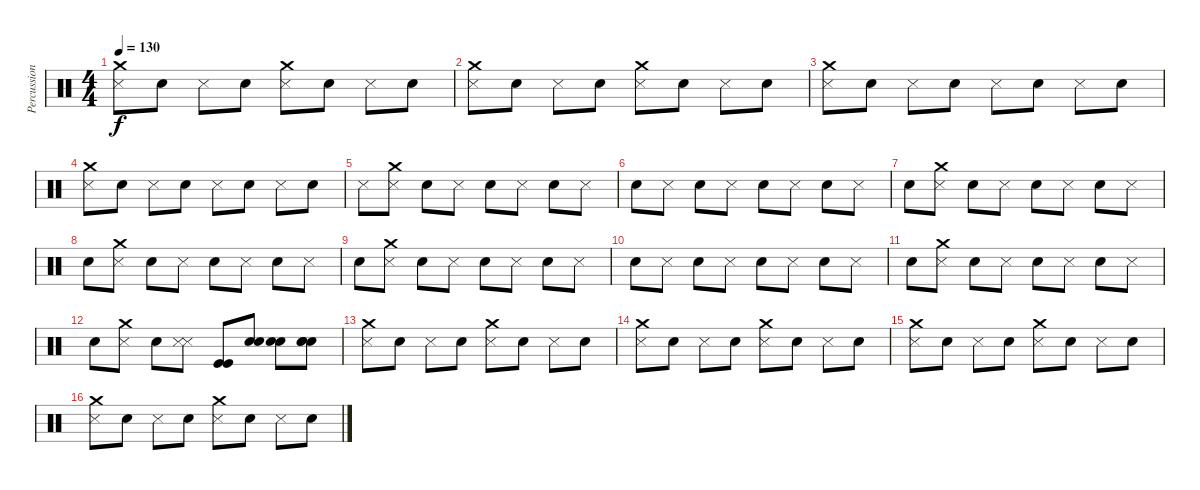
\track ("Percussion" "Percussion") {instrument percussion}
\staff {score}
\articulation defaults
\ts (4 4)
\tempo 130
\clef neutral
\ks c
("Crash medium (hit)" "Metronome (hit)").8{dy f} "Electric Snare (hit)".8 "Metronome (hit)".8 "Electric Snare (hit)".8 ("Crash medium (hit)" "Metronome (hit)").8 "Electric Snare (hit)".8 "Metronome (hit)".8 "Electric Snare (hit)".8 |
("Crash medium (hit)" "Metronome (hit)").8 "Electric Snare (hit)".8 "Metronome (hit)".8 "Electric Snare (hit)".8 ("Crash medium (hit)" "Metronome (hit)").8 "Electric Snare (hit)".8 "Metronome (hit)".8 "Electric Snare (hit)".8 |
("Crash medium (hit)" "Metronome (hit)").8 "Electric Snare (hit)".8 "Metronome (hit)".8 "Electric Snare (hit)".8 "Metronome (hit)".8 "Electric Snare (hit)".8 "Metronome (hit)".8 "Electric Snare (hit)".8 |
("Crash medium (hit)" "Metronome (hit)").8 "Electric Snare (hit)".8 "Metronome (hit)".8 "Electric Snare (hit)".8 "Metronome (hit)".8 "Electric Snare (hit)".8 "Metronome (hit)".8 "Electric Snare (hit)".8 |
"Metronome (hit)".8 ("Crash medium (hit)" "Metronome (hit)").8 "Electric Snare (hit)".8 "Metronome (hit)".8 "Electric Snare (hit)".8 "Metronome (hit)".8 "Electric Snare (hit)".8 "Metronome (hit)".8 |
"Electric Snare (hit)".8 "Metronome (hit)".8 "Electric Snare (hit)".8 "Metronome (hit)".8 "Electric Snare (hit)".8 "Metronome (hit)".8 "Electric Snare (hit)".8 "Metronome (hit)".8 |
"Electric Snare (hit)".8 ("Crash medium (hit)" "Metronome (hit)").8 "Electric Snare (hit)".8 "Metronome (hit)".8 "Electric Snare (hit)".8 "Metronome (hit)".8 "Electric Snare (hit)".8 "Metronome (hit)".8 |
"Electric Snare (hit)".8 ("Crash medium (hit)" "Metronome (hit)").8 "Electric Snare (hit)".8 "Metronome (hit)".8 "Electric Snare (hit)".8 "Metronome (hit)".8 "Electric Snare (hit)".8 "Metronome (hit)".8 |
"Electric Snare (hit)".8 ("Crash medium (hit)" "Metronome (hit)").8 "Electric Snare (hit)".8 "Metronome (hit)".8 "Electric Snare (hit)".8 "Metronome (hit)".8 "Electric Snare (hit)".8 "Metronome (hit)".8 |
"Electric Snare (hit)".8 "Metronome (hit)".8 "Electric Snare (hit)".8 "Metronome (hit)".8 "Electric Snare (hit)".8 "Metronome (hit)".8 "Electric Snare (hit)".8 "Metronome (hit)".8 |
"Electric Snare (hit)".8 ("Crash medium (hit)" "Metronome (hit)").8 "Electric Snare (hit)".8 "Metronome (hit)".8 "Electric Snare (hit)".8 "Metronome (hit)".8 "Electric Snare (hit)".8 "Metronome (hit)".8 |
"Electric Snare (hit)".8 ("Crash medium (hit)" "Metronome (hit)").8 "Electric Snare (hit)".8 ("Metronome (hit)" "Metronome (hit)").8 ("Kick (hit)" "Kick (hit)").8 ("Snare (hit) 2" "Snare (hit) 2").8 ("Electric Snare (hit)" "Electric Snare (hit)").8 ("Electric Snare (hit)" "Electric Snare (hit)" "Electric Snare (hit)").8 |
("Crash medium (hit)" "Metronome (hit)").8 "Electric Snare (hit)".8 "Metronome (hit)".8 "Electric Snare (hit)".8 ("Crash medium (hit)" "Metronome (hit)").8 "Electric Snare (hit)".8 "Metronome (hit)".8 "Electric Snare (hit)".8 |
("Crash medium (hit)" "Metronome (hit)").8 "Electric Snare (hit)".8 "Metronome (hit)".8 "Electric Snare (hit)".8 ("Crash medium (hit)" "Metronome (hit)").8 "Electric Snare (hit)".8 "Metronome (hit)".8 "Electric Snare (hit)".8 |
("Crash medium (hit)" "Metronome (hit)").8 "Electric Snare (hit)".8 "Metronome (hit)".8 "Electric Snare (hit)".8 ("Crash medium (hit)" "Metronome (hit)").8 "Electric Snare (hit)".8 "Metronome (hit)".8 "Electric Snare (hit)".8 |
("Crash medium (hit)" "Metronome (hit)").8 "Electric Snare (hit)".8 "Metronome (hit)".8 "Electric Snare (hit)".8 ("Crash medium (hit)" "Metronome (hit)").8 "Electric Snare (hit)".8 "Metronome (hit)".8 "Electric Snare (hit)".8
